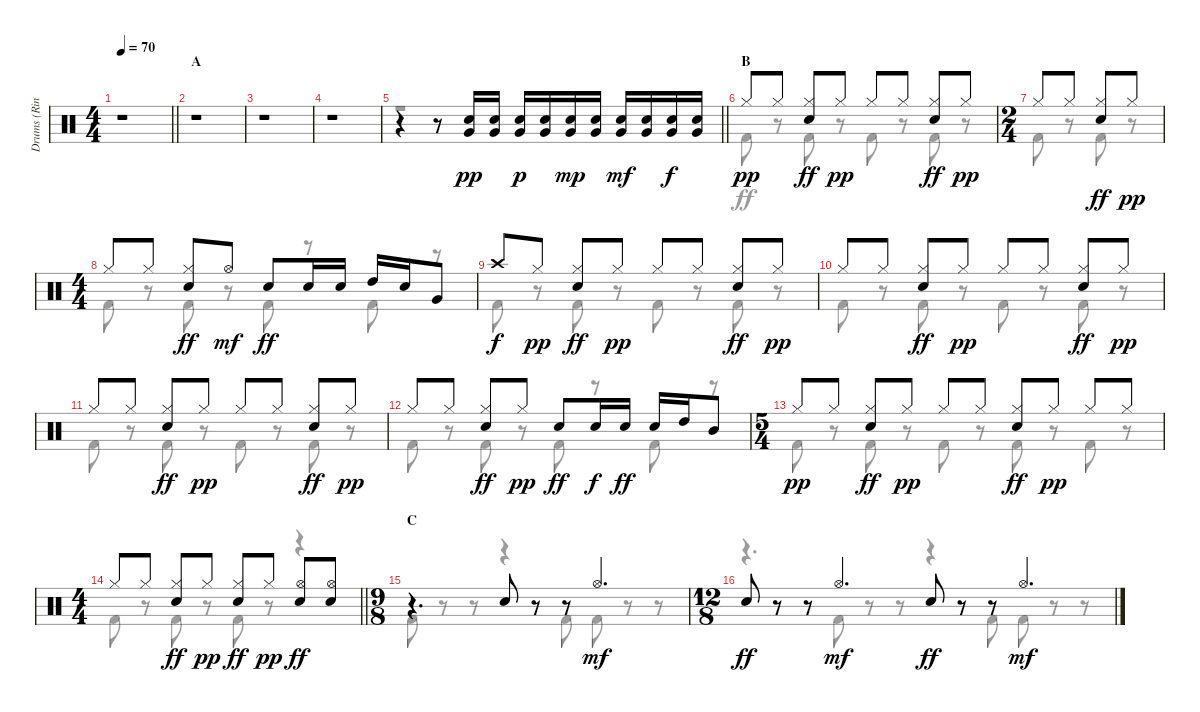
\track ("Drums (Ringo Starr)" "Drums (Rin") {instrument percussion}
\staff {score}
\articulation defaults
\voice
\ts (4 4)
\tempo 70
\clef neutral
\barLineRight lightlight
\ks c
r.1{dy pp} |
\section ("" "A")
r.1 |
r.1 |
r.1 |
\barLineRight lightlight
r.4 r.8 ("Snare (hit) 2" "Very Low Tom (hit)").16 ("Snare (hit) 2" "Very Low Tom (hit)").16 ("Snare (hit) 2" "Very Low Tom (hit)").16{dy p} ("Snare (hit) 2" "Very Low Tom (hit)").16 ("Snare (hit) 2" "Very Low Tom (hit)").16{dy mp} ("Snare (hit) 2" "Very Low Tom (hit)").16 ("Snare (hit) 2" "Very Low Tom (hit)").16{dy mf} ("Snare (hit) 2" "Very Low Tom (hit)").16 ("Snare (hit) 2" "Very Low Tom (hit)").16{dy f} ("Snare (hit) 2" "Very Low Tom (hit)").16 |
\section ("" "B")
"Hi-Hat (closed)".8{dy pp} "Hi-Hat (closed)".8 ("Hi-Hat (closed)" "Snare (hit) 2").8{dy ff} "Hi-Hat (closed)".8{dy pp} "Hi-Hat (closed)".8 "Hi-Hat (closed)".8 ("Hi-Hat (closed)" "Snare (hit) 2").8{dy ff} "Hi-Hat (closed)".8{dy pp} |
\ts (2 4)
"Hi-Hat (closed)".8 "Hi-Hat (closed)".8 ("Hi-Hat (closed)" "Snare (hit) 2").8{dy ff} "Hi-Hat (closed)".8{dy pp} |
\ts (4 4)
"Hi-Hat (closed)".8 "Hi-Hat (closed)".8 ("Hi-Hat (closed)" "Snare (hit) 2").8{dy ff} "Hi-Hat (open)".8{dy mf} "Snare (hit) 2".8{dy ff} "Snare (hit) 2".16 "Snare (hit) 2".16 "High Tom (hit)".16 "Snare (hit) 2".16 "Very Low Tom (hit)".8 |
"Crash high (hit)".8{dy f} "Hi-Hat (closed)".8{dy pp} ("Hi-Hat (closed)" "Snare (hit) 2").8{dy ff} "Hi-Hat (closed)".8{dy pp} "Hi-Hat (closed)".8 "Hi-Hat (closed)".8 ("Hi-Hat (closed)" "Snare (hit) 2").8{dy ff} "Hi-Hat (closed)".8{dy pp} |
"Hi-Hat (closed)".8 "Hi-Hat (closed)".8 ("Hi-Hat (closed)" "Snare (hit) 2").8{dy ff} "Hi-Hat (closed)".8{dy pp} "Hi-Hat (closed)".8 "Hi-Hat (closed)".8 ("Hi-Hat (closed)" "Snare (hit) 2").8{dy ff} "Hi-Hat (closed)".8{dy pp} |
"Hi-Hat (closed)".8 "Hi-Hat (closed)".8 ("Hi-Hat (closed)" "Snare (hit) 2").8{dy ff} "Hi-Hat (closed)".8{dy pp} "Hi-Hat (closed)".8 "Hi-Hat (closed)".8 ("Hi-Hat (closed)" "Snare (hit) 2").8{dy ff} "Hi-Hat (closed)".8{dy pp} |
"Hi-Hat (closed)".8 "Hi-Hat (closed)".8 ("Hi-Hat (closed)" "Snare (hit) 2").8{dy ff} "Hi-Hat (closed)".8{dy pp} "Snare (hit) 2".8{dy ff} "Snare (hit) 2".16{dy f} "Snare (hit) 2".16{dy ff} "Snare (hit) 2".16 "High Tom (hit)".16 "Mid Tom (hit)".8 |
\ts (5 4)
"Hi-Hat (closed)".8{dy pp} "Hi-Hat (closed)".8 ("Hi-Hat (closed)" "Snare (hit) 2").8{dy ff} "Hi-Hat (closed)".8{dy pp} "Hi-Hat (closed)".8 "Hi-Hat (closed)".8 ("Hi-Hat (closed)" "Snare (hit) 2").8{dy ff} "Hi-Hat (closed)".8{dy pp} "Hi-Hat (closed)".8 "Hi-Hat (closed)".8 |
\ts (4 4)
\barLineRight lightlight "Hi-Hat (closed)".8 "Hi-Hat (closed)".8
("Hi-Hat (closed)" "Snare (hit) 2").8{dy ff} "Hi-Hat (closed)".8{dy pp} ("Hi-Hat (closed)" "Snare (hit) 2").8{dy ff} "Hi-Hat (closed)".8{dy pp} ("Hi-Hat (open)" "Snare (hit) 2").8{dy ff} ("Hi-Hat (open)" "Snare (hit) 2").8 |
\ts (9 8)
\section ("" "C")
r.4{d} "Snare (hit) 2".8 r.8 r.8 "Hi-Hat (open)".4{d dy mf} |
\ts (12 8)
"Snare (hit) 2".8{dy ff} r.8 r.8 "Hi-Hat (open)".4{d dy mf} "Snare (hit) 2".8{dy ff} r.8 r.8 "Hi-Hat (open)".4{d dy mf}
\voice
\clef neutral
\ottava regular
\simile none
\barLineRight lightlight
\ks c
r.1{dy ff} |
r.1 |
r.1 |
r.1 |
\barLineRight lightlight
r.1 |
"Kick (hit) 2".8 r.8 "Kick (hit) 2".8 r.8 "Kick (hit) 2".8 r.8 "Kick (hit) 2".8 r.8 |
"Kick (hit) 2".8 r.8 "Kick (hit) 2".8 r.8 |
"Kick (hit) 2".8 r.8 "Kick (hit) 2".8 r.8 "Kick (hit) 2".8 r.8 "Kick (hit) 2".8 r.8 |
"Kick (hit) 2".8 r.8 "Kick (hit) 2".8 r.8 "Kick (hit) 2".8 r.8 "Kick (hit) 2".8 r.8 |
"Kick (hit) 2".8 r.8 "Kick (hit) 2".8 r.8 "Kick (hit) 2".8 r.8 "Kick (hit) 2".8 r.8 |
"Kick (hit) 2".8 r.8 "Kick (hit) 2".8 r.8 "Kick (hit) 2".8 r.8 "Kick (hit) 2".8 r.8 |
"Kick (hit) 2".8 r.8 "Kick (hit) 2".8 r.8 "Kick (hit) 2".8 r.8 "Kick (hit) 2".8 r.8 |
"Kick (hit) 2".8 r.8 "Kick (hit) 2".8 r.8 "Kick (hit) 2".8 r.8 "Kick (hit) 2".8 r.8 "Kick (hit) 2".8 r.8 |
\barLineRight lightlight "Kick (hit) 2".8
r.8 "Kick (hit) 2".8 r.8 "Kick (hit) 2".8 r.8 r.4 |
"Kick (hit) 2".8 r.8 r.8 r.4 "Kick (hit) 2".8 "Kick (hit) 2".8 r.8 r.8 |
r.4{d} "Kick (hit) 2".8 r.8 r.8 r.4 "Kick (hit) 2".8 "Kick (hit) 2".8 r.8 r.8
